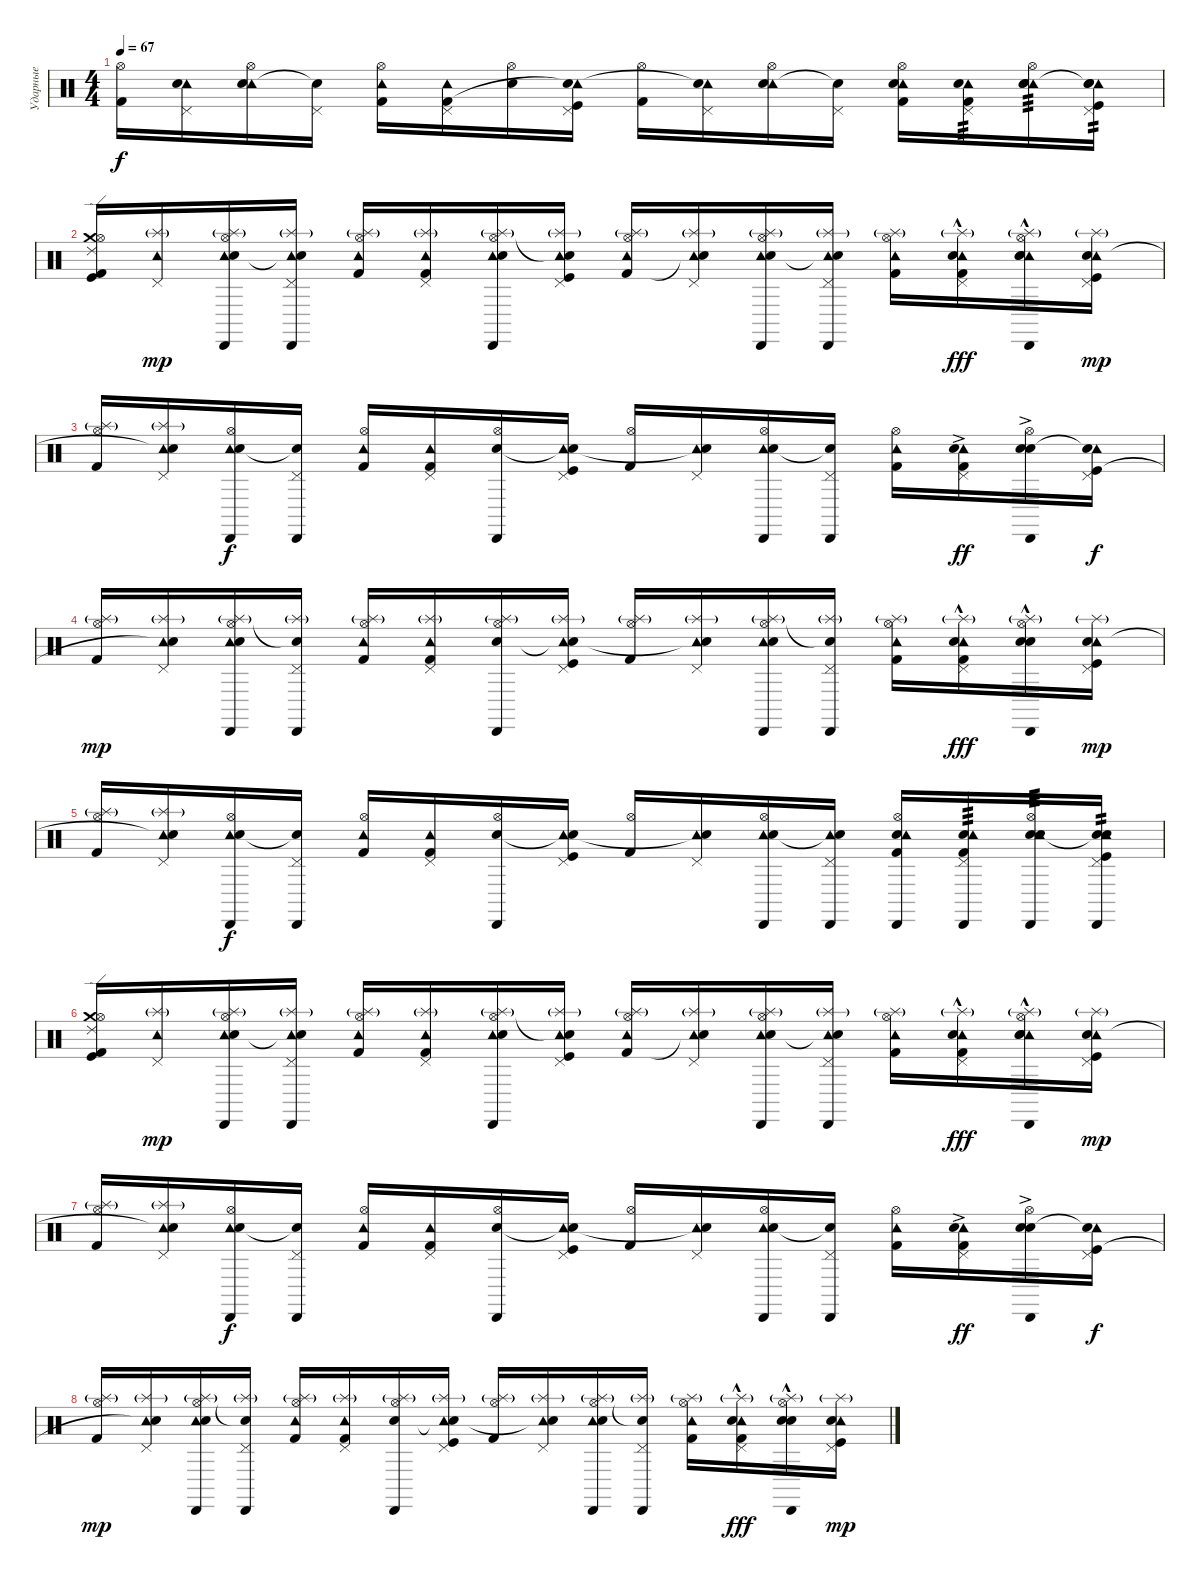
\track ("Ударные" "Ударные") {instrument percussion}
\staff {score}
\articulation defaults
\ts (4 4)
\tempo 67
\clef neutral
\ks c
("Hi-Hat (open)" "Kick (hit) 2").16{dy f} ("Pedal Hi-Hat (hit)" "Tambourine (hit)" "Snare (hit)"{t}).16 ("Hi-Hat (open)" "Tambourine (hit)" "Electric Snare (hit)").16 ("Pedal Hi-Hat (hit)" "Snare (hit) 2"{t}).16 ("Hi-Hat (open)" "Tambourine (hit)" "Kick (hit) 2").16 ("Pedal Hi-Hat (hit)" "Tambourine (hit)" "Kick (hit) 2").16 ("Hi-Hat (open)" "Snare (hit) 2").16 ("Pedal Hi-Hat (hit)" "Tambourine (hit)" "Snare (hit) 2"{t} "Kick (hit)").16 ("Hi-Hat (open)" "Kick (hit) 2").16 ("Pedal Hi-Hat (hit)" "Tambourine (hit)" "Snare (hit)"{t}).16 ("Hi-Hat (open)" "Tambourine (hit)" "Electric Snare (hit)").16 ("Pedal Hi-Hat (hit)" "Snare (hit) 2"{t}).16 ("Hi-Hat (open)" "Tambourine (hit)" "Snare (hit) 2" "Kick (hit) 2").16 ("Pedal Hi-Hat (hit)" "Tambourine (hit)" "Snare (hit) 2" "Kick (hit) 2").16{tp 3} ("Hi-Hat (open)" "Tambourine (hit)" "Snare (hit) 2" "Electric Snare (hit)").16{tp 3} ("Pedal Hi-Hat (hit)" "Tambourine (hit)" "Snare (hit) 2" "Snare (hit) 2"{t} "Kick (hit)").16{tp 2} |
("Crash medium (hit)" "Kick (hit) 2" "Kick (hit)" "Ride (edge) 2" "Hi-Hat (open)").16 ("Pedal Hi-Hat (hit)" "Tambourine (hit)" "Splash (hit)"{g}).16{dy mp} ("Hi-Hat (open)" "Cabasa (hit)" "Tambourine (hit)" "Splash (hit)"{g} "Snare (hit) 2").16 ("Pedal Hi-Hat (hit)" "Cabasa (hit)" "Tambourine (hit)" "Splash (hit)"{g} "Snare (hit) 2"{t}).16 ("Hi-Hat (open)" "Tambourine (hit)" "Splash (hit)"{g} "Kick (hit) 2").16 ("Pedal Hi-Hat (hit)" "Tambourine (hit)" "Splash (hit)"{g} "Kick (hit) 2").16 ("Hi-Hat (open)" "Cabasa (hit)" "Tambourine (hit)" "Splash (hit)"{g} "Electric Snare (hit)").16 ("Pedal Hi-Hat (hit)" "Tambourine (hit)" "Splash (hit)"{g} "Snare (hit) 2"{t} "Kick (hit)").16 ("Hi-Hat (open)" "Tambourine (hit)" "Splash (hit)"{g} "Kick (hit) 2").16 ("Pedal Hi-Hat (hit)" "Tambourine (hit)" "Splash (hit)"{g} "Snare (hit)"{t}).16 ("Hi-Hat (open)" "Cabasa (hit)" "Tambourine (hit)" "Splash (hit)"{g} "Snare (hit) 2").16 ("Pedal Hi-Hat (hit)" "Cabasa (hit)" "Tambourine (hit)" "Splash (hit)"{g} "Snare (hit) 2"{t}).16 ("Hi-Hat (open)" "Tambourine (hit)" "Splash (hit)"{g} "Kick (hit) 2").16 ("Pedal Hi-Hat (hit)" "Tambourine (hit)" "Splash (hit)"{g} "Hand Clap (hit)"{hac} "Kick (hit) 2").16{dy fff} ("Hi-Hat (open)" "Cabasa (hit)" "Tambourine (hit)" "Splash (hit)"{g} "Electric Snare (hit)" "Hand Clap (hit)"{hac}).16 ("Pedal Hi-Hat (hit)" "Tambourine (hit)" "Splash (hit)"{g} "Electric Snare (hit)" "Kick (hit)").16{dy mp} |
("Hi-Hat (open)" "Splash (hit)"{g} "Kick (hit) 2").16 ("Pedal Hi-Hat (hit)" "Tambourine (hit)" "Splash (hit)"{g} "Snare (hit)"{t}).16 ("Hi-Hat (open)" "Cabasa (hit)" "Tambourine (hit)" "Snare (hit) 2").16{dy f} ("Pedal Hi-Hat (hit)" "Cabasa (hit)" "Snare (hit) 2"{t}).16 ("Hi-Hat (open)" "Tambourine (hit)" "Kick (hit) 2").16 ("Pedal Hi-Hat (hit)" "Tambourine (hit)" "Kick (hit) 2").16 ("Hi-Hat (open)" "Cabasa (hit)" "Electric Snare (hit)").16 ("Pedal Hi-Hat (hit)" "Tambourine (hit)" "Snare (hit) 2"{t} "Kick (hit)").16 ("Hi-Hat (open)" "Kick (hit) 2").16 ("Pedal Hi-Hat (hit)" "Tambourine (hit)" "Snare (hit)"{t}).16 ("Hi-Hat (open)" "Cabasa (hit)" "Tambourine (hit)" "Snare (hit) 2").16 ("Pedal Hi-Hat (hit)" "Cabasa (hit)" "Snare (hit) 2"{t}).16 ("Hi-Hat (open)" "Tambourine (hit)" "Kick (hit) 2").16 ("Pedal Hi-Hat (hit)" "Tambourine (hit)" "Hand Clap (hit)"{ac} "Kick (hit) 2").16{dy ff} ("Hi-Hat (open)" "Cabasa (hit)" "Hand Clap (hit)"{ac} "Electric Snare (hit)").16 ("Pedal Hi-Hat (hit)" "Tambourine (hit)" "Snare (hit) 2"{t} "Kick (hit)").16{dy f} |
("Hi-Hat (open)" "Splash (hit)"{g} "Kick (hit) 2").16{dy mp} ("Pedal Hi-Hat (hit)" "Tambourine (hit)" "Splash (hit)"{g} "Snare (hit)"{t}).16 ("Hi-Hat (open)" "Cabasa (hit)" "Tambourine (hit)" "Splash (hit)"{g} "Snare (hit) 2").16 ("Pedal Hi-Hat (hit)" "Cabasa (hit)" "Splash (hit)"{g} "Snare (hit) 2"{t}).16 ("Hi-Hat (open)" "Tambourine (hit)" "Splash (hit)"{g} "Kick (hit) 2").16 ("Pedal Hi-Hat (hit)" "Tambourine (hit)" "Splash (hit)"{g} "Kick (hit) 2").16 ("Hi-Hat (open)" "Cabasa (hit)" "Splash (hit)"{g} "Electric Snare (hit)").16 ("Pedal Hi-Hat (hit)" "Tambourine (hit)" "Splash (hit)"{g} "Snare (hit) 2"{t} "Kick (hit)").16 ("Hi-Hat (open)" "Splash (hit)"{g} "Kick (hit) 2").16 ("Pedal Hi-Hat (hit)" "Tambourine (hit)" "Splash (hit)"{g} "Snare (hit)"{t}).16 ("Hi-Hat (open)" "Cabasa (hit)" "Tambourine (hit)" "Splash (hit)"{g} "Snare (hit) 2").16 ("Pedal Hi-Hat (hit)" "Cabasa (hit)" "Splash (hit)"{g} "Snare (hit) 2"{t}).16 ("Hi-Hat (open)" "Tambourine (hit)" "Splash (hit)"{g} "Kick (hit) 2").16 ("Pedal Hi-Hat (hit)" "Tambourine (hit)" "Splash (hit)"{g} "Hand Clap (hit)"{hac} "Kick (hit) 2").16{dy fff} ("Hi-Hat (open)" "Cabasa (hit)" "Splash (hit)"{g} "Electric Snare (hit)" "Hand Clap (hit)"{hac}).16 ("Pedal Hi-Hat (hit)" "Tambourine (hit)" "Splash (hit)"{g} "Electric Snare (hit)" "Kick (hit)").16{dy mp} |
("Hi-Hat (open)" "Splash (hit)"{g} "Kick (hit) 2").16 ("Pedal Hi-Hat (hit)" "Tambourine (hit)" "Splash (hit)"{g} "Snare (hit)"{t}).16 ("Hi-Hat (open)" "Cabasa (hit)" "Tambourine (hit)" "Snare (hit) 2").16{dy f} ("Pedal Hi-Hat (hit)" "Cabasa (hit)" "Snare (hit) 2"{t}).16 ("Hi-Hat (open)" "Tambourine (hit)" "Kick (hit) 2").16 ("Pedal Hi-Hat (hit)" "Tambourine (hit)" "Kick (hit) 2").16 ("Hi-Hat (open)" "Cabasa (hit)" "Electric Snare (hit)").16 ("Pedal Hi-Hat (hit)" "Tambourine (hit)" "Snare (hit) 2"{t} "Kick (hit)").16 ("Hi-Hat (open)" "Kick (hit) 2").16 ("Pedal Hi-Hat (hit)" "Tambourine (hit)" "Snare (hit)"{t}).16 ("Hi-Hat (open)" "Cabasa (hit)" "Tambourine (hit)" "Snare (hit) 2").16 ("Pedal Hi-Hat (hit)" "Cabasa (hit)" "Tambourine (hit)" "Snare (hit) 2"{t}).16 ("Hi-Hat (open)" "Cabasa (hit)" "Snare (hit) 2" "Tambourine (hit)" "Kick (hit) 2").16 ("Pedal Hi-Hat (hit)" "Cabasa (hit)" "Snare (hit) 2" "Tambourine (hit)" "Kick (hit) 2").16{tp 3} ("Hi-Hat (open)" "Cabasa (hit)" "Snare (hit) 2" "Tambourine (hit)" "Electric Snare (hit)").16{tp 3} ("Pedal Hi-Hat (hit)" "Cabasa (hit)" "Snare (hit) 2" "Tambourine (hit)" "Snare (hit) 2"{t} "Kick (hit)").16{tp 2} |
("Crash medium (hit)" "Kick (hit) 2" "Kick (hit)" "Ride (edge) 2" "Hi-Hat (open)").16 ("Pedal Hi-Hat (hit)" "Tambourine (hit)" "Splash (hit)"{g}).16{dy mp} ("Hi-Hat (open)" "Cabasa (hit)" "Tambourine (hit)" "Splash (hit)"{g} "Snare (hit) 2").16 ("Pedal Hi-Hat (hit)" "Cabasa (hit)" "Tambourine (hit)" "Splash (hit)"{g} "Snare (hit) 2"{t}).16 ("Hi-Hat (open)" "Tambourine (hit)" "Splash (hit)"{g} "Kick (hit) 2").16 ("Pedal Hi-Hat (hit)" "Tambourine (hit)" "Splash (hit)"{g} "Kick (hit) 2").16 ("Hi-Hat (open)" "Cabasa (hit)" "Tambourine (hit)" "Splash (hit)"{g} "Electric Snare (hit)").16 ("Pedal Hi-Hat (hit)" "Tambourine (hit)" "Splash (hit)"{g} "Snare (hit) 2"{t} "Kick (hit)").16 ("Hi-Hat (open)" "Tambourine (hit)" "Splash (hit)"{g} "Kick (hit) 2").16 ("Pedal Hi-Hat (hit)" "Tambourine (hit)" "Splash (hit)"{g} "Snare (hit)"{t}).16 ("Hi-Hat (open)" "Cabasa (hit)" "Tambourine (hit)" "Splash (hit)"{g} "Snare (hit) 2").16 ("Pedal Hi-Hat (hit)" "Cabasa (hit)" "Tambourine (hit)" "Splash (hit)"{g} "Snare (hit) 2"{t}).16 ("Hi-Hat (open)" "Tambourine (hit)" "Splash (hit)"{g} "Kick (hit) 2").16 ("Pedal Hi-Hat (hit)" "Tambourine (hit)" "Splash (hit)"{g} "Hand Clap (hit)"{hac} "Kick (hit) 2").16{dy fff} ("Hi-Hat (open)" "Cabasa (hit)" "Tambourine (hit)" "Splash (hit)"{g} "Electric Snare (hit)" "Hand Clap (hit)"{hac}).16 ("Pedal Hi-Hat (hit)" "Tambourine (hit)" "Splash (hit)"{g} "Electric Snare (hit)" "Kick (hit)").16{dy mp} |
("Hi-Hat (open)" "Splash (hit)"{g} "Kick (hit) 2").16 ("Pedal Hi-Hat (hit)" "Tambourine (hit)" "Splash (hit)"{g} "Snare (hit)"{t}).16 ("Hi-Hat (open)" "Cabasa (hit)" "Tambourine (hit)" "Snare (hit) 2").16{dy f} ("Pedal Hi-Hat (hit)" "Cabasa (hit)" "Snare (hit) 2"{t}).16 ("Hi-Hat (open)" "Tambourine (hit)" "Kick (hit) 2").16 ("Pedal Hi-Hat (hit)" "Tambourine (hit)" "Kick (hit) 2").16 ("Hi-Hat (open)" "Cabasa (hit)" "Electric Snare (hit)").16 ("Pedal Hi-Hat (hit)" "Tambourine (hit)" "Snare (hit) 2"{t} "Kick (hit)").16 ("Hi-Hat (open)" "Kick (hit) 2").16 ("Pedal Hi-Hat (hit)" "Tambourine (hit)" "Snare (hit)"{t}).16 ("Hi-Hat (open)" "Cabasa (hit)" "Tambourine (hit)" "Snare (hit) 2").16 ("Pedal Hi-Hat (hit)" "Cabasa (hit)" "Snare (hit) 2"{t}).16 ("Hi-Hat (open)" "Tambourine (hit)" "Kick (hit) 2").16 ("Pedal Hi-Hat (hit)" "Tambourine (hit)" "Hand Clap (hit)"{ac} "Kick (hit) 2").16{dy ff} ("Hi-Hat (open)" "Cabasa (hit)" "Hand Clap (hit)"{ac} "Electric Snare (hit)").16 ("Pedal Hi-Hat (hit)" "Tambourine (hit)" "Snare (hit) 2"{t} "Kick (hit)").16{dy f} |
("Hi-Hat (open)" "Splash (hit)"{g} "Kick (hit) 2").16{dy mp} ("Pedal Hi-Hat (hit)" "Tambourine (hit)" "Splash (hit)"{g} "Snare (hit)"{t}).16 ("Hi-Hat (open)" "Cabasa (hit)" "Tambourine (hit)" "Splash (hit)"{g} "Snare (hit) 2").16 ("Pedal Hi-Hat (hit)" "Cabasa (hit)" "Splash (hit)"{g} "Snare (hit) 2"{t}).16 ("Hi-Hat (open)" "Tambourine (hit)" "Splash (hit)"{g} "Kick (hit) 2").16 ("Pedal Hi-Hat (hit)" "Tambourine (hit)" "Splash (hit)"{g} "Kick (hit) 2").16 ("Hi-Hat (open)" "Cabasa (hit)" "Splash (hit)"{g} "Electric Snare (hit)").16 ("Pedal Hi-Hat (hit)" "Tambourine (hit)" "Splash (hit)"{g} "Snare (hit) 2"{t} "Kick (hit)").16 ("Hi-Hat (open)" "Splash (hit)"{g} "Kick (hit) 2").16 ("Pedal Hi-Hat (hit)" "Tambourine (hit)" "Splash (hit)"{g} "Snare (hit)"{t}).16 ("Hi-Hat (open)" "Cabasa (hit)" "Tambourine (hit)" "Splash (hit)"{g} "Snare (hit) 2").16 ("Pedal Hi-Hat (hit)" "Cabasa (hit)" "Splash (hit)"{g} "Snare (hit) 2"{t}).16 ("Hi-Hat (open)" "Tambourine (hit)" "Splash (hit)"{g} "Kick (hit) 2").16 ("Pedal Hi-Hat (hit)" "Tambourine (hit)" "Splash (hit)"{g} "Hand Clap (hit)"{hac} "Kick (hit) 2").16{dy fff} ("Hi-Hat (open)" "Cabasa (hit)" "Splash (hit)"{g} "Electric Snare (hit)" "Hand Clap (hit)"{hac}).16 ("Pedal Hi-Hat (hit)" "Tambourine (hit)" "Splash (hit)"{g} "Electric Snare (hit)" "Kick (hit)").16{dy mp}
